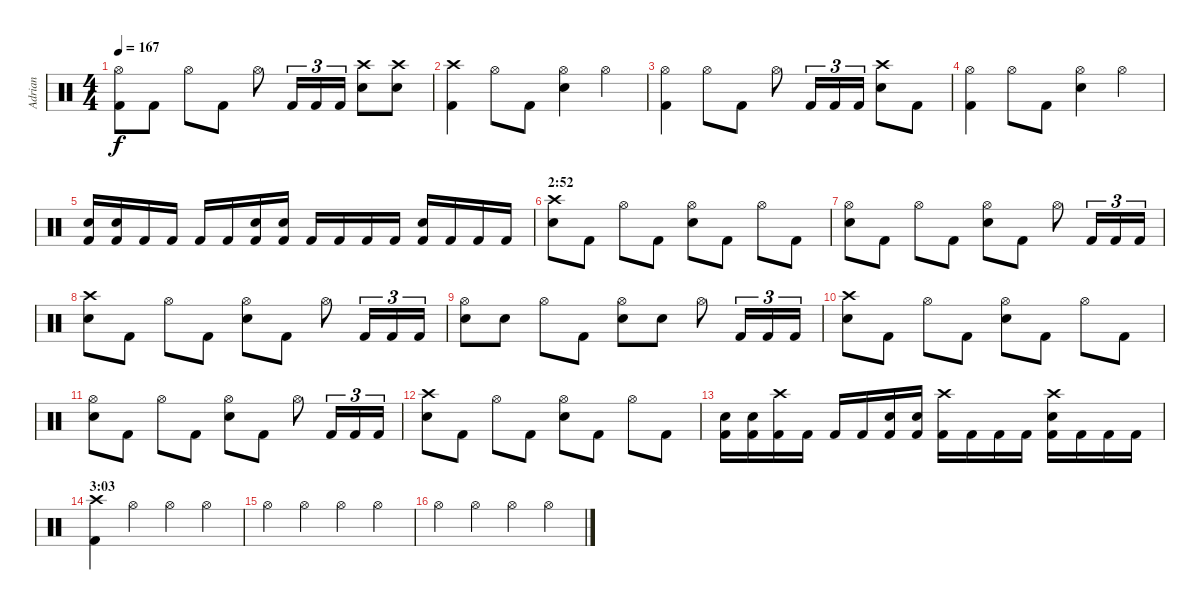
\track ("Adrian" "Adrian") {instrument percussion}
\staff {score}
\articulation defaults
\ts (4 4)
\tempo 167
\clef neutral
\ks c
("Kick (hit) 2" "Hi-Hat (open)").8{dy f} "Kick (hit) 2".8 "Hi-Hat (open)".8 "Kick (hit) 2".8 "Hi-Hat (open)".8 "Kick (hit) 2".16{tu (3 2)} "Kick (hit) 2".16{tu (3 2)} "Kick (hit) 2".16{tu (3 2)} ("Snare (hit) 2" "Crash high (hit)").8 ("Snare (hit) 2" "Crash high (hit)").8 |
("Kick (hit) 2" "Crash high (hit)").4 "Hi-Hat (open)".8 "Kick (hit) 2".8 ("Snare (hit) 2" "Hi-Hat (open)").4 "Hi-Hat (open)".4 |
("Kick (hit) 2" "Hi-Hat (open)").4 "Hi-Hat (open)".8 "Kick (hit) 2".8 "Hi-Hat (open)".8 "Kick (hit) 2".16{tu (3 2)} "Kick (hit) 2".16{tu (3 2)} "Kick (hit) 2".16{tu (3 2)} ("Snare (hit) 2" "Crash high (hit)").8 "Kick (hit) 2".8 |
("Kick (hit) 2" "Hi-Hat (open)").4 "Hi-Hat (open)".8 "Kick (hit) 2".8 ("Snare (hit) 2" "Hi-Hat (open)").4 "Hi-Hat (open)".4 |
("Kick (hit) 2" "Snare (hit) 2").16 ("Kick (hit) 2" "Snare (hit) 2").16 "Kick (hit) 2".16 "Kick (hit) 2".16 "Kick (hit) 2".16 "Kick (hit) 2".16 ("Kick (hit) 2" "Snare (hit) 2").16 ("Kick (hit) 2" "Snare (hit) 2").16 "Kick (hit) 2".16 "Kick (hit) 2".16 "Kick (hit) 2".16 "Kick (hit) 2".16 ("Kick (hit) 2" "Snare (hit) 2").16 "Kick (hit) 2".16 "Kick (hit) 2".16 "Kick (hit) 2".16 |
\section ("" "2:52")
("Snare (hit) 2" "Crash high (hit)").8 "Kick (hit) 2".8 "Hi-Hat (open)".8 "Kick (hit) 2".8 ("Snare (hit) 2" "Hi-Hat (open)").8 "Kick (hit) 2".8 "Hi-Hat (open)".8 "Kick (hit) 2".8 |
("Snare (hit) 2" "Hi-Hat (open)").8 "Kick (hit) 2".8 "Hi-Hat (open)".8 "Kick (hit) 2".8 ("Snare (hit) 2" "Hi-Hat (open)").8 "Kick (hit) 2".8 "Hi-Hat (open)".8 "Kick (hit) 2".16{tu (3 2)} "Kick (hit) 2".16{tu (3 2)} "Kick (hit) 2".16{tu (3 2)} |
("Snare (hit) 2" "Crash high (hit)").8 "Kick (hit) 2".8 "Hi-Hat (open)".8 "Kick (hit) 2".8 ("Snare (hit) 2" "Hi-Hat (open)").8 "Kick (hit) 2".8 "Hi-Hat (open)".8 "Kick (hit) 2".16{tu (3 2)} "Kick (hit) 2".16{tu (3 2)} "Kick (hit) 2".16{tu (3 2)} |
("Snare (hit) 2" "Hi-Hat (open)").8 "Snare (hit) 2".8 "Hi-Hat (open)".8 "Kick (hit) 2".8 ("Snare (hit) 2" "Hi-Hat (open)").8 "Snare (hit) 2".8 "Hi-Hat (open)".8 "Kick (hit) 2".16{tu (3 2)} "Kick (hit) 2".16{tu (3 2)} "Kick (hit) 2".16{tu (3 2)} |
("Snare (hit) 2" "Crash high (hit)").8 "Kick (hit) 2".8 "Hi-Hat (open)".8 "Kick (hit) 2".8 ("Snare (hit) 2" "Hi-Hat (open)").8 "Kick (hit) 2".8 "Hi-Hat (open)".8 "Kick (hit) 2".8 |
("Snare (hit) 2" "Hi-Hat (open)").8 "Kick (hit) 2".8 "Hi-Hat (open)".8 "Kick (hit) 2".8 ("Snare (hit) 2" "Hi-Hat (open)").8 "Kick (hit) 2".8 "Hi-Hat (open)".8 "Kick (hit) 2".16{tu (3 2)} "Kick (hit) 2".16{tu (3 2)} "Kick (hit) 2".16{tu (3 2)} |
("Snare (hit) 2" "Crash high (hit)").8 "Kick (hit) 2".8 "Hi-Hat (open)".8 "Kick (hit) 2".8 ("Snare (hit) 2" "Hi-Hat (open)").8 "Kick (hit) 2".8 "Hi-Hat (open)".8 "Kick (hit) 2".8 |
("Kick (hit) 2" "Snare (hit) 2").16 ("Kick (hit) 2" "Snare (hit) 2").16 ("Kick (hit) 2" "Crash high (hit)").16 "Kick (hit) 2".16 "Kick (hit) 2".16 "Kick (hit) 2".16 ("Kick (hit) 2" "Snare (hit) 2").16 ("Kick (hit) 2" "Snare (hit) 2").16 ("Kick (hit) 2" "Crash high (hit)").16 "Kick (hit) 2".16 "Kick (hit) 2".16 "Kick (hit) 2".16 ("Kick (hit) 2" "Snare (hit) 2" "Crash high (hit)").16 "Kick (hit) 2".16 "Kick (hit) 2".16 "Kick (hit) 2".16 |
\section ("" "3:03")
("Kick (hit) 2" "Crash high (hit)").4 "Hi-Hat (open)".4 "Hi-Hat (open)".4 "Hi-Hat (open)".4 |
"Hi-Hat (open)".4 "Hi-Hat (open)".4 "Hi-Hat (open)".4 "Hi-Hat (open)".4 |
"Hi-Hat (open)".4 "Hi-Hat (open)".4 "Hi-Hat (open)".4 "Hi-Hat (open)".4
